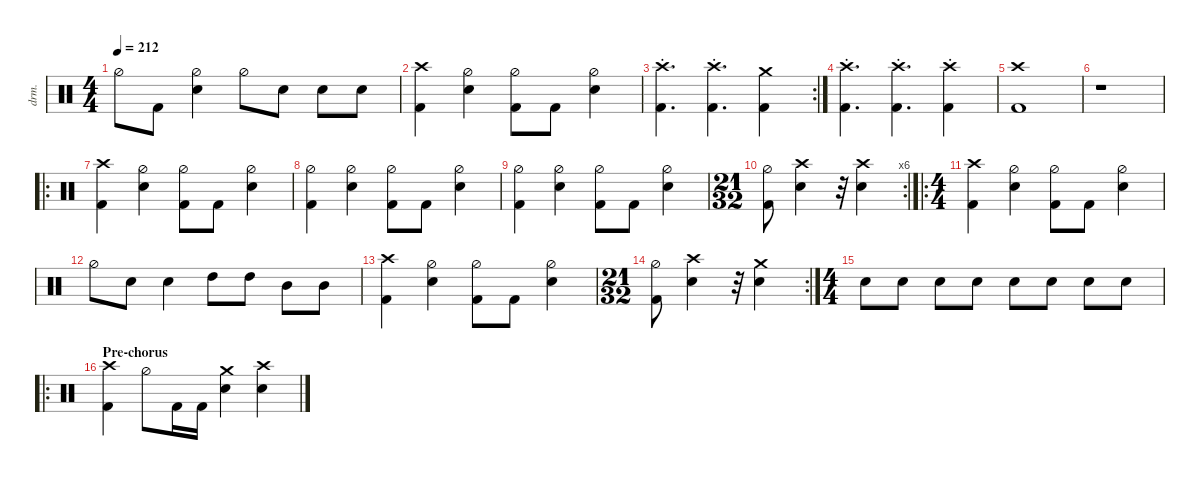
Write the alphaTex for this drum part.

\defaultSystemsLayout 4
\hideDynamics
\bracketExtendMode nobrackets
\track ("Drums" "drm.") {defaultSystemsLayout 4 multiBarRest instrument percussion}
\staff
\articulation defaults
\ts (4 4)
\tempo 212
\clef neutral
\ks c "Hi-Hat (half)".8{dy f} "Kick (hit) 2".8
("Hi-Hat (half)" "Snare (hit) 2").4 "Hi-Hat (half)".8 "Snare (hit) 2".8 "Snare (hit) 2".8 "Snare (hit) 2".8 |
("Crash high (hit)" "Kick (hit) 2").4 ("Hi-Hat (half)" "Snare (hit) 2").4 ("Hi-Hat (half)" "Kick (hit) 2").8 "Kick (hit) 2".8 ("Hi-Hat (half)" "Snare (hit) 2").4 |
\rc 2
("Crash high (hit)"{st} "Kick (hit) 2").4{d} ("Crash high (hit)"{st} "Kick (hit) 2").4{d} ("Crash medium (hit)" "Kick (hit) 2").4 |
("Crash high (hit)"{st} "Kick (hit) 2").4{d} ("Crash high (hit)"{st} "Kick (hit) 2").4{d} ("Crash high (hit)"{st} "Kick (hit) 2").4 |
("Kick (hit) 2" "Crash high (hit)").1 |
r.1 |
\ro
("Crash high (hit)" "Kick (hit) 2").4 ("Hi-Hat (half)" "Snare (hit) 2").4 ("Hi-Hat (half)" "Kick (hit) 2").8 "Kick (hit) 2".8 ("Hi-Hat (half)" "Snare (hit) 2").4 |
("Kick (hit) 2" "Hi-Hat (half)").4 ("Hi-Hat (half)" "Snare (hit) 2").4 ("Hi-Hat (half)" "Kick (hit) 2").8 "Kick (hit) 2".8 ("Hi-Hat (half)" "Snare (hit) 2").4 |
("Kick (hit) 2" "Hi-Hat (half)").4 ("Hi-Hat (half)" "Snare (hit) 2").4 ("Hi-Hat (half)" "Kick (hit) 2").8 "Kick (hit) 2".8 ("Hi-Hat (half)" "Snare (hit) 2").4 |
\rc 6
\ts (21 32)
\beaming (8 3 2)
("Kick (hit) 2" "Hi-Hat (half)").8 ("Snare (hit) 2" "Crash high (hit)").4 r.32 ("Snare (hit) 2" "Crash high (hit)").4 |
\ro
\ts (4 4)
\beaming (8 2 2 2 2)
("Crash high (hit)" "Kick (hit) 2").4 ("Hi-Hat (half)" "Snare (hit) 2").4 ("Hi-Hat (half)" "Kick (hit) 2").8 "Kick (hit) 2".8 ("Hi-Hat (half)" "Snare (hit) 2").4 |
"Hi-Hat (half)".8 "Snare (hit) 2".8 "Snare (hit) 2".4 "High Tom (hit)".8{dy ff} "High Tom (hit)".8 "Mid Tom (hit)".8 "Mid Tom (hit)".8 |
("Crash high (hit)" "Kick (hit) 2").4{dy f} ("Hi-Hat (half)" "Snare (hit) 2").4 ("Hi-Hat (half)" "Kick (hit) 2").8 "Kick (hit) 2".8 ("Hi-Hat (half)" "Snare (hit) 2").4 |
\rc 2
\ts (21 32)
\beaming (8 3 2)
("Kick (hit) 2" "Hi-Hat (half)").8 ("Snare (hit) 2" "Crash high (hit)").4 r.32 ("Snare (hit) 2" "Crash medium (hit)").4 |
\ts (4 4)
\beaming (8 2 2 2 2)
"Snare (hit) 2".8 "Snare (hit) 2".8 "Snare (hit) 2".8 "Snare (hit) 2".8 "Snare (hit) 2".8 "Snare (hit) 2".8 "Snare (hit) 2".8 "Snare (hit) 2".8 |
\ro
\section ("" "Pre-chorus")
("Crash high (hit)" "Kick (hit) 2").4 "Hi-Hat (half)".8 "Kick (hit) 2".16 "Kick (hit) 2".16 ("Snare (hit) 2" "Crash medium (hit)").4 ("Snare (hit) 2" "Crash high (hit)").4
